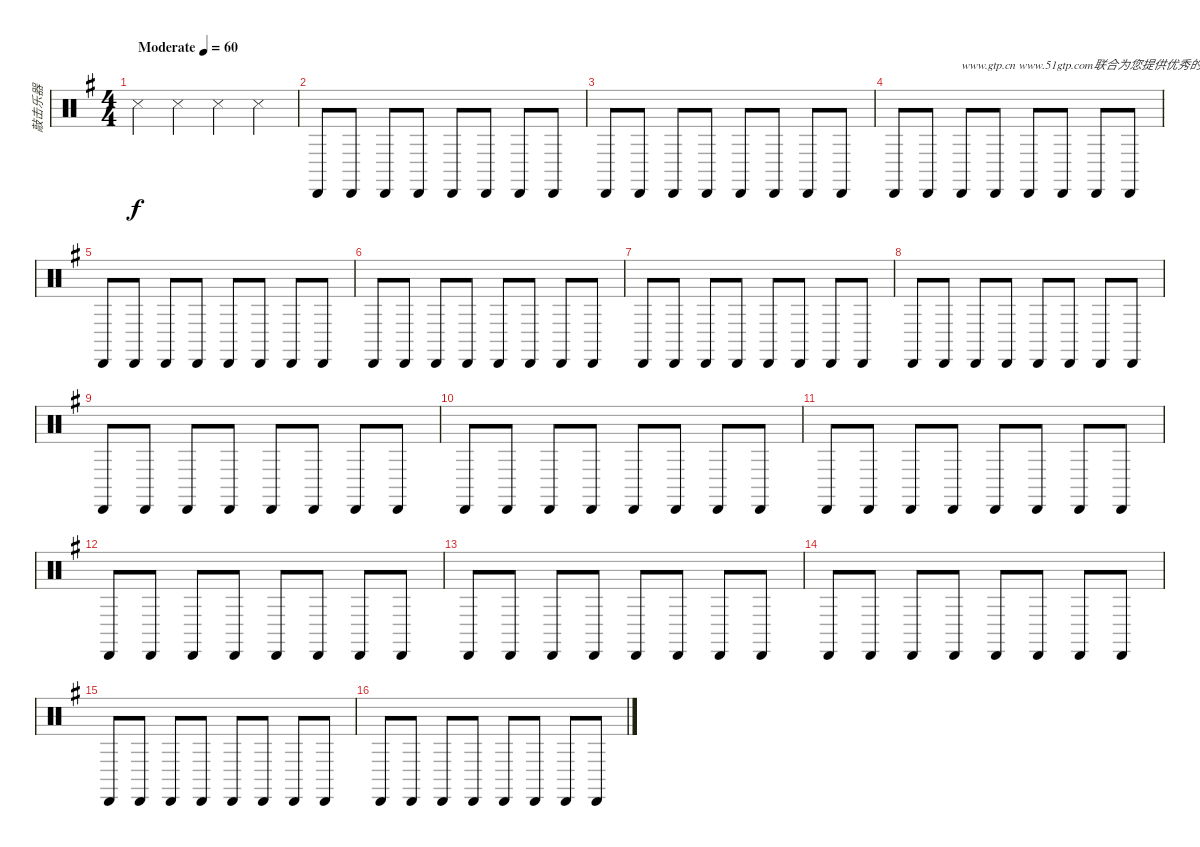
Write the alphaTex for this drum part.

\track ("敲击乐器" "敲击乐器") {instrument percussion}
\staff {score}
\articulation defaults
\ts (4 4)
\tempo (60 "Moderate")
\clef neutral
\ks g "Snare (side stick) 3".4{dy f} "Snare (side stick) 3".4 "Snare (side stick) 3".4 "Snare (side stick) 3".4
|
"Cabasa (hit)".8 "Cabasa (hit)".8 "Cabasa (hit)".8 "Cabasa (hit)".8 "Cabasa (hit)".8 "Cabasa (hit)".8 "Cabasa (hit)".8 "Cabasa (hit)".8 |
"Cabasa (hit)".8 "Cabasa (hit)".8 "Cabasa (hit)".8 "Cabasa (hit)".8 "Cabasa (hit)".8 "Cabasa (hit)".8 "Cabasa (hit)".8 "Cabasa (hit)".8 |
"Cabasa (hit)".8 "Cabasa (hit)".8 "Cabasa (hit)".8{txt "www.gtp.cn www.51gtp.com联合为您提供优秀的GTP!"} "Cabasa (hit)".8 "Cabasa (hit)".8 "Cabasa (hit)".8 "Cabasa (hit)".8 "Cabasa (hit)".8 |
"Cabasa (hit)".8 "Cabasa (hit)".8 "Cabasa (hit)".8 "Cabasa (hit)".8 "Cabasa (hit)".8 "Cabasa (hit)".8 "Cabasa (hit)".8 "Cabasa (hit)".8 |
"Cabasa (hit)".8 "Cabasa (hit)".8 "Cabasa (hit)".8 "Cabasa (hit)".8 "Cabasa (hit)".8 "Cabasa (hit)".8 "Cabasa (hit)".8 "Cabasa (hit)".8 |
"Cabasa (hit)".8 "Cabasa (hit)".8 "Cabasa (hit)".8 "Cabasa (hit)".8 "Cabasa (hit)".8 "Cabasa (hit)".8 "Cabasa (hit)".8 "Cabasa (hit)".8 |
"Cabasa (hit)".8 "Cabasa (hit)".8 "Cabasa (hit)".8 "Cabasa (hit)".8 "Cabasa (hit)".8 "Cabasa (hit)".8 "Cabasa (hit)".8 "Cabasa (hit)".8 |
"Cabasa (hit)".8 "Cabasa (hit)".8 "Cabasa (hit)".8 "Cabasa (hit)".8 "Cabasa (hit)".8 "Cabasa (hit)".8 "Cabasa (hit)".8 "Cabasa (hit)".8 |
"Cabasa (hit)".8 "Cabasa (hit)".8 "Cabasa (hit)".8 "Cabasa (hit)".8 "Cabasa (hit)".8 "Cabasa (hit)".8 "Cabasa (hit)".8 "Cabasa (hit)".8 |
"Cabasa (hit)".8 "Cabasa (hit)".8 "Cabasa (hit)".8 "Cabasa (hit)".8 "Cabasa (hit)".8 "Cabasa (hit)".8 "Cabasa (hit)".8 "Cabasa (hit)".8 |
"Cabasa (hit)".8 "Cabasa (hit)".8 "Cabasa (hit)".8 "Cabasa (hit)".8 "Cabasa (hit)".8 "Cabasa (hit)".8 "Cabasa (hit)".8 "Cabasa (hit)".8 |
"Cabasa (hit)".8 "Cabasa (hit)".8 "Cabasa (hit)".8 "Cabasa (hit)".8 "Cabasa (hit)".8 "Cabasa (hit)".8 "Cabasa (hit)".8 "Cabasa (hit)".8 |
"Cabasa (hit)".8 "Cabasa (hit)".8 "Cabasa (hit)".8 "Cabasa (hit)".8 "Cabasa (hit)".8 "Cabasa (hit)".8 "Cabasa (hit)".8 "Cabasa (hit)".8 |
"Cabasa (hit)".8 "Cabasa (hit)".8 "Cabasa (hit)".8 "Cabasa (hit)".8 "Cabasa (hit)".8 "Cabasa (hit)".8 "Cabasa (hit)".8 "Cabasa (hit)".8 |
"Cabasa (hit)".8 "Cabasa (hit)".8 "Cabasa (hit)".8 "Cabasa (hit)".8 "Cabasa (hit)".8 "Cabasa (hit)".8 "Cabasa (hit)".8 "Cabasa (hit)".8
